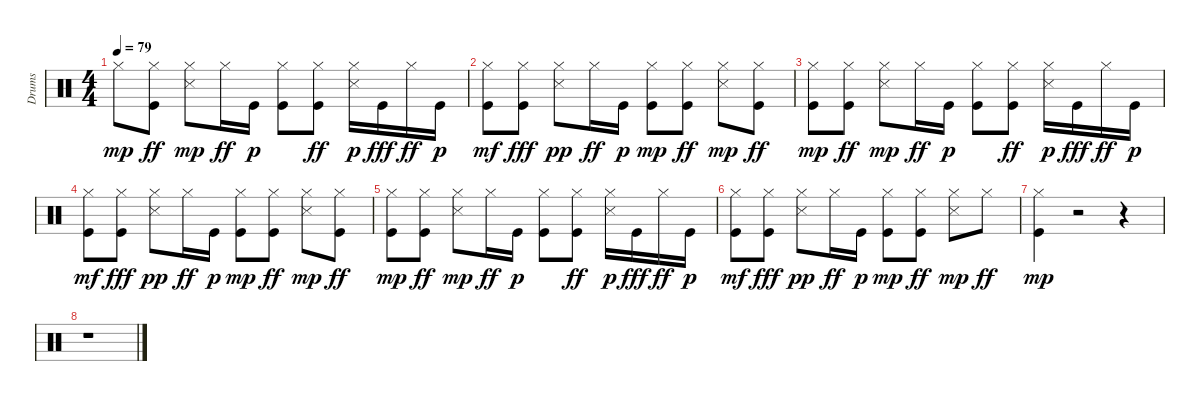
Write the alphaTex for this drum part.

\track ("Drums" "Drums") {instrument percussion}
\staff {score}
\articulation defaults
\ts (4 4)
\tempo 79
\clef neutral
\ks c "Hi-Hat (closed)".8{dy mp}
("Kick (hit)" "Hi-Hat (closed)").8{dy ff} ("Snare (side stick) 3" "Hi-Hat (closed)").8{dy mp} "Hi-Hat (closed)".16{dy ff} "Kick (hit)".16{dy p} ("Kick (hit)" "Hi-Hat (closed)").8 ("Kick (hit)" "Hi-Hat (closed)").8{dy ff} ("Snare (side stick) 3" "Hi-Hat (closed)").16{dy p} "Kick (hit)".16{dy fff} "Hi-Hat (closed)".16{dy ff} "Kick (hit)".16{dy p} |
("Kick (hit)" "Hi-Hat (closed)").8{dy mf} ("Kick (hit)" "Hi-Hat (closed)").8{dy fff} ("Snare (side stick) 3" "Hi-Hat (closed)").8{dy pp} "Hi-Hat (closed)".16{dy ff} "Kick (hit)".16{dy p} ("Kick (hit)" "Hi-Hat (closed)").8{dy mp} ("Kick (hit)" "Hi-Hat (closed)").8{dy ff} ("Snare (side stick) 3" "Hi-Hat (closed)").8{dy mp} ("Kick (hit)" "Hi-Hat (closed)").8{dy ff} |
("Kick (hit)" "Hi-Hat (closed)").8{dy mp} ("Kick (hit)" "Hi-Hat (closed)").8{dy ff} ("Snare (side stick) 3" "Hi-Hat (closed)").8{dy mp} "Hi-Hat (closed)".16{dy ff} "Kick (hit)".16{dy p} ("Kick (hit)" "Hi-Hat (closed)").8 ("Kick (hit)" "Hi-Hat (closed)").8{dy ff} ("Snare (side stick) 3" "Hi-Hat (closed)").16{dy p} "Kick (hit)".16{dy fff} "Hi-Hat (closed)".16{dy ff} "Kick (hit)".16{dy p} |
("Kick (hit)" "Hi-Hat (closed)").8{dy mf} ("Kick (hit)" "Hi-Hat (closed)").8{dy fff} ("Snare (side stick) 3" "Hi-Hat (closed)").8{dy pp} "Hi-Hat (closed)".16{dy ff} "Kick (hit)".16{dy p} ("Kick (hit)" "Hi-Hat (closed)").8{dy mp} ("Kick (hit)" "Hi-Hat (closed)").8{dy ff} ("Snare (side stick) 3" "Hi-Hat (closed)").8{dy mp} ("Kick (hit)" "Hi-Hat (closed)").8{dy ff} |
("Kick (hit)" "Hi-Hat (closed)").8{dy mp} ("Kick (hit)" "Hi-Hat (closed)").8{dy ff} ("Snare (side stick) 3" "Hi-Hat (closed)").8{dy mp} "Hi-Hat (closed)".16{dy ff} "Kick (hit)".16{dy p} ("Kick (hit)" "Hi-Hat (closed)").8 ("Kick (hit)" "Hi-Hat (closed)").8{dy ff} ("Snare (side stick) 3" "Hi-Hat (closed)").16{dy p} "Kick (hit)".16{dy fff} "Hi-Hat (closed)".16{dy ff} "Kick (hit)".16{dy p} |
("Kick (hit)" "Hi-Hat (closed)").8{dy mf} ("Kick (hit)" "Hi-Hat (closed)").8{dy fff} ("Snare (side stick) 3" "Hi-Hat (closed)").8{dy pp} "Hi-Hat (closed)".16{dy ff} "Kick (hit)".16{dy p} ("Kick (hit)" "Hi-Hat (closed)").8{dy mp} ("Kick (hit)" "Hi-Hat (closed)").8{dy ff} ("Snare (side stick) 3" "Hi-Hat (closed)").8{dy mp} "Hi-Hat (closed)".8{dy ff} |
("Kick (hit)" "Hi-Hat (closed)").4{dy mp} r.2 r.4 |
r.1
